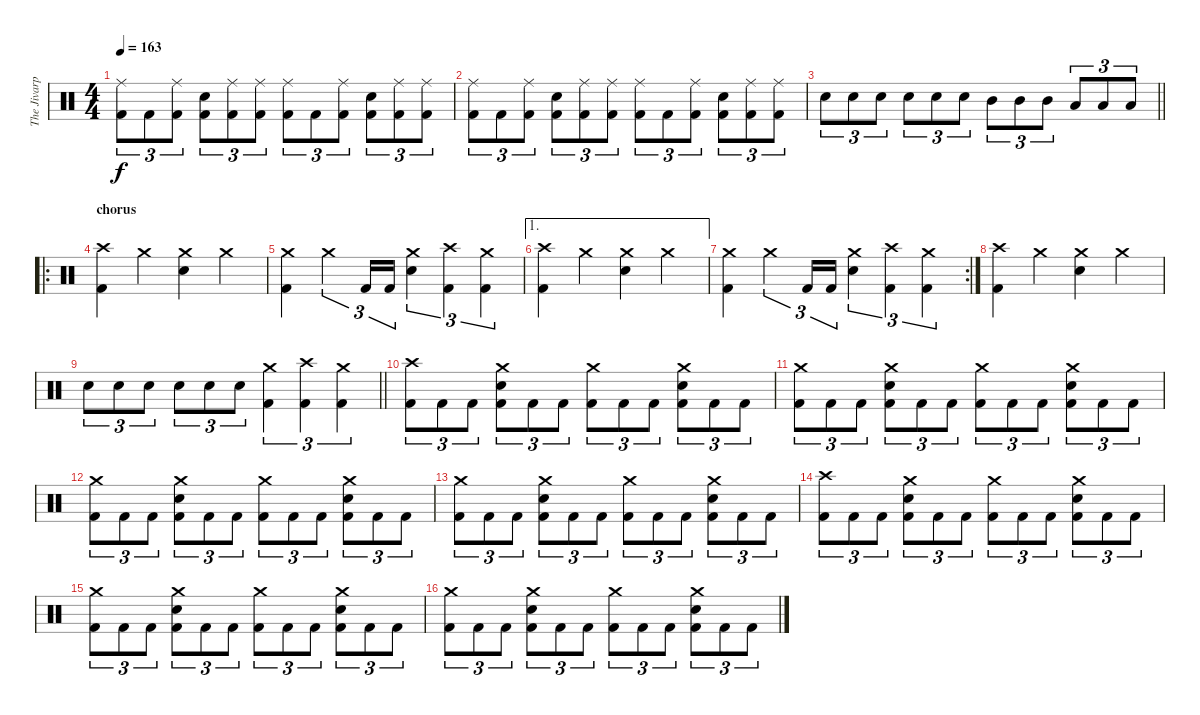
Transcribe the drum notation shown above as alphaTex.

\track ("The Jivarp" "The Jivarp") {instrument percussion}
\staff {score}
\articulation defaults
\ts (4 4)
\tempo 163
\clef neutral
\ks c
("Ride (middle)" "Kick (hit) 2").8{tu (3 2) dy f} "Kick (hit) 2".8{tu (3 2)} ("Ride (middle)" "Kick (hit) 2").8{tu (3 2)} ("Electric Snare (hit)" "Kick (hit) 2").8{tu (3 2)} ("Ride (middle)" "Kick (hit) 2").8{tu (3 2)} ("Ride (middle)" "Kick (hit) 2").8{tu (3 2)} ("Ride (middle)" "Kick (hit) 2").8{tu (3 2)} "Kick (hit) 2".8{tu (3 2)} ("Ride (middle)" "Kick (hit) 2").8{tu (3 2)} ("Electric Snare (hit)" "Kick (hit) 2").8{tu (3 2)} ("Ride (middle)" "Kick (hit) 2").8{tu (3 2)} ("Ride (middle)" "Kick (hit) 2").8{tu (3 2)} |
("Ride (middle)" "Kick (hit) 2").8{tu (3 2)} "Kick (hit) 2".8{tu (3 2)} ("Ride (middle)" "Kick (hit) 2").8{tu (3 2)} ("Electric Snare (hit)" "Kick (hit) 2").8{tu (3 2)} ("Ride (middle)" "Kick (hit) 2").8{tu (3 2)} ("Ride (middle)" "Kick (hit) 2").8{tu (3 2)} ("Ride (middle)" "Kick (hit) 2").8{tu (3 2)} "Kick (hit) 2".8{tu (3 2)} ("Ride (middle)" "Kick (hit) 2").8{tu (3 2)} ("Electric Snare (hit)" "Kick (hit) 2").8{tu (3 2)} ("Ride (middle)" "Kick (hit) 2").8{tu (3 2)} ("Ride (middle)" "Kick (hit) 2").8{tu (3 2)} |
\barLineRight lightlight "Electric Snare (hit)".8{tu (3 2)} "Electric Snare (hit)".8{tu (3 2)} "Electric Snare (hit)".8{tu (3 2)} "Electric Snare (hit)".8{tu (3 2)} "Electric Snare (hit)".8{tu (3 2)} "Electric Snare (hit)".8{tu (3 2)} "Mid Tom (hit)".8{tu (3 2)} "Mid Tom (hit)".8{tu (3 2)} "Mid Tom (hit)".8{tu (3 2)} "Low Tom (hit)".8{tu (3 2)} "Low Tom (hit)".8{tu (3 2)} "Low Tom (hit)".8{tu (3 2)}
|
\ro
\section ("" "chorus")
("Crash high (hit)" "Kick (hit) 2").4 "Crash medium (hit)".4 ("Crash medium (hit)" "Electric Snare (hit)").4 "Crash medium (hit)".4 |
("Crash medium (hit)" "Kick (hit) 2").4 "Crash medium (hit)".4{tu (3 2)} "Kick (hit) 2".16{tu (3 2)} "Kick (hit) 2".16{tu (3 2)} ("Crash medium (hit)" "Electric Snare (hit)").4{tu (3 2)} ("Crash high (hit)" "Kick (hit) 2").4{tu (3 2)} ("Crash medium (hit)" "Kick (hit) 2").4{tu (3 2)} |
\ae 1
("Crash high (hit)" "Kick (hit) 2").4 "Crash medium (hit)".4 ("Crash medium (hit)" "Electric Snare (hit)").4 "Crash medium (hit)".4 |
\rc 2
("Crash medium (hit)" "Kick (hit) 2").4 "Crash medium (hit)".4{tu (3 2)} "Kick (hit) 2".16{tu (3 2)} "Kick (hit) 2".16{tu (3 2)} ("Crash medium (hit)" "Electric Snare (hit)").4{tu (3 2)} ("Crash high (hit)" "Kick (hit) 2").4{tu (3 2)} ("Crash medium (hit)" "Kick (hit) 2").4{tu (3 2)} |
("Crash high (hit)" "Kick (hit) 2").4 "Crash medium (hit)".4 ("Crash medium (hit)" "Electric Snare (hit)").4 "Crash medium (hit)".4 |
\barLineRight lightlight "Electric Snare (hit)".8{tu (3 2)} "Electric Snare (hit)".8{tu (3 2)} "Electric Snare (hit)".8{tu (3 2)} "Electric Snare (hit)".8{tu (3 2)} "Electric Snare (hit)".8{tu (3 2)} "Electric Snare (hit)".8{tu (3 2)}
("Crash medium (hit)" "Kick (hit) 2").4{tu (3 2)} ("Crash high (hit)" "Kick (hit) 2").4{tu (3 2)} ("Crash medium (hit)" "Kick (hit) 2").4{tu (3 2)} |
\section ("" "")
("Crash high (hit)" "Kick (hit) 2").8{tu (3 2)} "Kick (hit) 2".8{tu (3 2)} "Kick (hit) 2".8{tu (3 2)} ("Crash medium (hit)" "Electric Snare (hit)" "Kick (hit) 2").8{tu (3 2)} "Kick (hit) 2".8{tu (3 2)} "Kick (hit) 2".8{tu (3 2)} ("Crash medium (hit)" "Kick (hit) 2").8{tu (3 2)} "Kick (hit) 2".8{tu (3 2)} "Kick (hit) 2".8{tu (3 2)} ("Crash medium (hit)" "Electric Snare (hit)" "Kick (hit) 2").8{tu (3 2)} "Kick (hit) 2".8{tu (3 2)} "Kick (hit) 2".8{tu (3 2)} |
("Crash medium (hit)" "Kick (hit) 2").8{tu (3 2)} "Kick (hit) 2".8{tu (3 2)} "Kick (hit) 2".8{tu (3 2)} ("Crash medium (hit)" "Electric Snare (hit)" "Kick (hit) 2").8{tu (3 2)} "Kick (hit) 2".8{tu (3 2)} "Kick (hit) 2".8{tu (3 2)} ("Crash medium (hit)" "Kick (hit) 2").8{tu (3 2)} "Kick (hit) 2".8{tu (3 2)} "Kick (hit) 2".8{tu (3 2)} ("Crash medium (hit)" "Electric Snare (hit)" "Kick (hit) 2").8{tu (3 2)} "Kick (hit) 2".8{tu (3 2)} "Kick (hit) 2".8{tu (3 2)} |
("Crash medium (hit)" "Kick (hit) 2").8{tu (3 2)} "Kick (hit) 2".8{tu (3 2)} "Kick (hit) 2".8{tu (3 2)} ("Crash medium (hit)" "Electric Snare (hit)" "Kick (hit) 2").8{tu (3 2)} "Kick (hit) 2".8{tu (3 2)} "Kick (hit) 2".8{tu (3 2)} ("Crash medium (hit)" "Kick (hit) 2").8{tu (3 2)} "Kick (hit) 2".8{tu (3 2)} "Kick (hit) 2".8{tu (3 2)} ("Crash medium (hit)" "Electric Snare (hit)" "Kick (hit) 2").8{tu (3 2)} "Kick (hit) 2".8{tu (3 2)} "Kick (hit) 2".8{tu (3 2)} |
("Crash medium (hit)" "Kick (hit) 2").8{tu (3 2)} "Kick (hit) 2".8{tu (3 2)} "Kick (hit) 2".8{tu (3 2)} ("Crash medium (hit)" "Electric Snare (hit)" "Kick (hit) 2").8{tu (3 2)} "Kick (hit) 2".8{tu (3 2)} "Kick (hit) 2".8{tu (3 2)} ("Crash medium (hit)" "Kick (hit) 2").8{tu (3 2)} "Kick (hit) 2".8{tu (3 2)} "Kick (hit) 2".8{tu (3 2)} ("Crash medium (hit)" "Electric Snare (hit)" "Kick (hit) 2").8{tu (3 2)} "Kick (hit) 2".8{tu (3 2)} "Kick (hit) 2".8{tu (3 2)} |
("Crash high (hit)" "Kick (hit) 2").8{tu (3 2)} "Kick (hit) 2".8{tu (3 2)} "Kick (hit) 2".8{tu (3 2)} ("Crash medium (hit)" "Electric Snare (hit)" "Kick (hit) 2").8{tu (3 2)} "Kick (hit) 2".8{tu (3 2)} "Kick (hit) 2".8{tu (3 2)} ("Crash medium (hit)" "Kick (hit) 2").8{tu (3 2)} "Kick (hit) 2".8{tu (3 2)} "Kick (hit) 2".8{tu (3 2)} ("Crash medium (hit)" "Electric Snare (hit)" "Kick (hit) 2").8{tu (3 2)} "Kick (hit) 2".8{tu (3 2)} "Kick (hit) 2".8{tu (3 2)} |
("Crash medium (hit)" "Kick (hit) 2").8{tu (3 2)} "Kick (hit) 2".8{tu (3 2)} "Kick (hit) 2".8{tu (3 2)} ("Crash medium (hit)" "Electric Snare (hit)" "Kick (hit) 2").8{tu (3 2)} "Kick (hit) 2".8{tu (3 2)} "Kick (hit) 2".8{tu (3 2)} ("Crash medium (hit)" "Kick (hit) 2").8{tu (3 2)} "Kick (hit) 2".8{tu (3 2)} "Kick (hit) 2".8{tu (3 2)} ("Crash medium (hit)" "Electric Snare (hit)" "Kick (hit) 2").8{tu (3 2)} "Kick (hit) 2".8{tu (3 2)} "Kick (hit) 2".8{tu (3 2)} |
("Crash medium (hit)" "Kick (hit) 2").8{tu (3 2)} "Kick (hit) 2".8{tu (3 2)} "Kick (hit) 2".8{tu (3 2)} ("Crash medium (hit)" "Electric Snare (hit)" "Kick (hit) 2").8{tu (3 2)} "Kick (hit) 2".8{tu (3 2)} "Kick (hit) 2".8{tu (3 2)} ("Crash medium (hit)" "Kick (hit) 2").8{tu (3 2)} "Kick (hit) 2".8{tu (3 2)} "Kick (hit) 2".8{tu (3 2)} ("Crash medium (hit)" "Electric Snare (hit)" "Kick (hit) 2").8{tu (3 2)} "Kick (hit) 2".8{tu (3 2)} "Kick (hit) 2".8{tu (3 2)}
